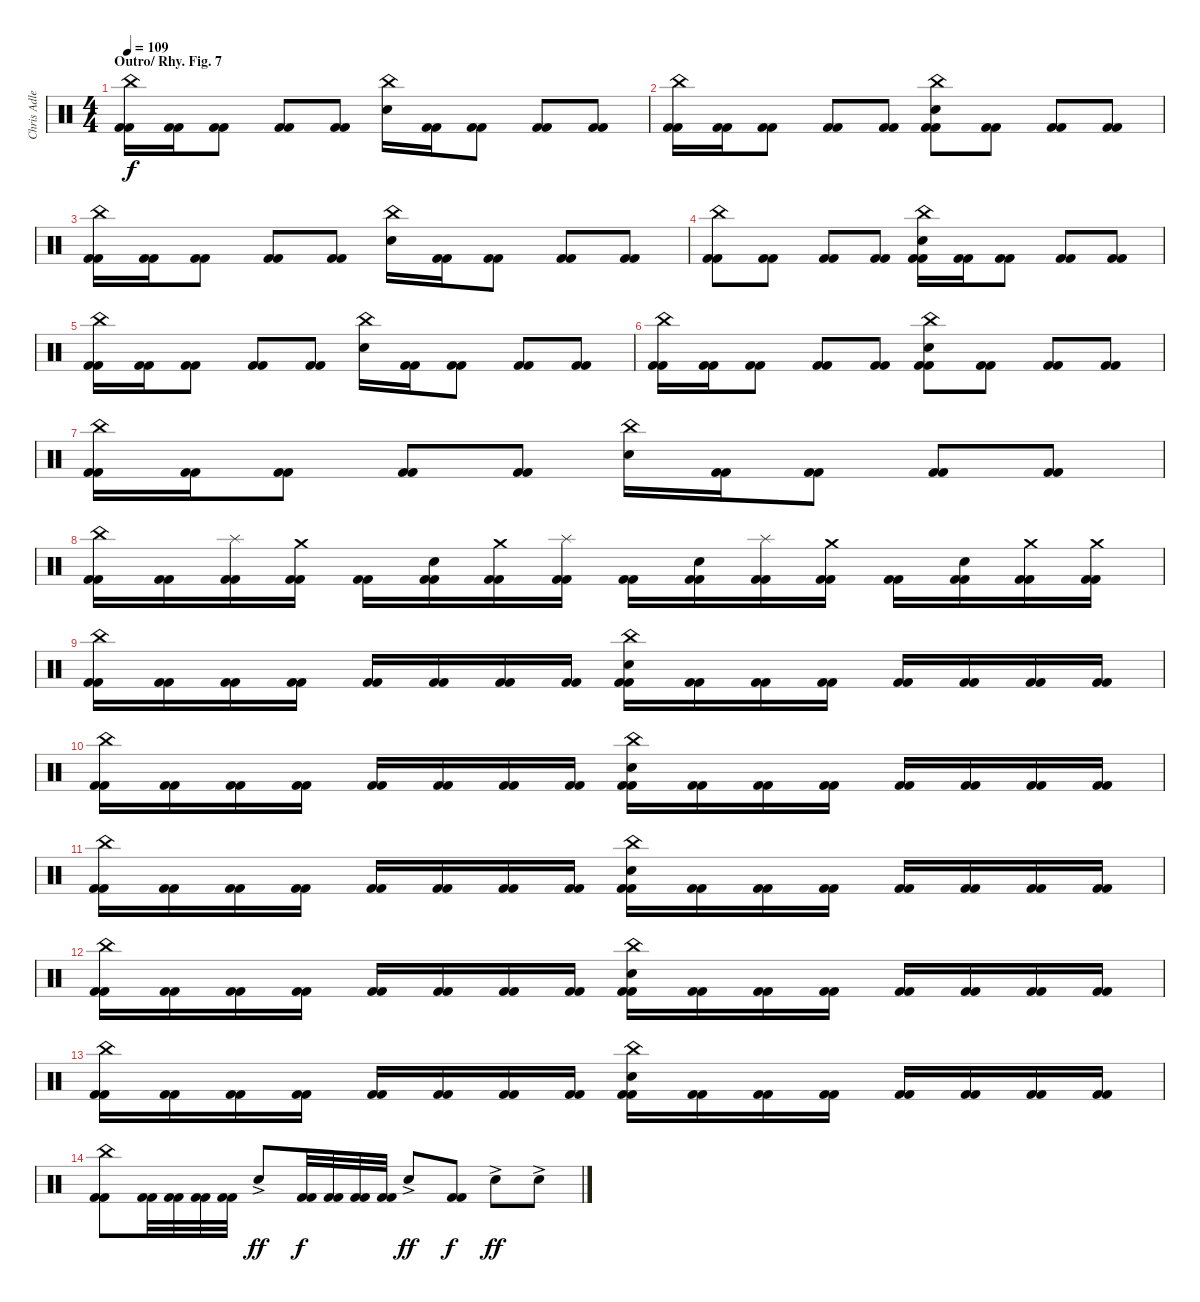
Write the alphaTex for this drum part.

\track ("Chris Adler" "Chris Adle") {instrument percussion}
\staff {score}
\articulation defaults
\ts (4 4)
\section ("" "Outro/ Rhy. Fig. 7")
\tempo 109
\clef neutral
\ks c
("China (hit)" "Kick (hit) 2" "Kick (hit) 2").16{dy f} ("Kick (hit) 2" "Kick (hit) 2").16 ("Kick (hit) 2" "Kick (hit) 2").8 ("Kick (hit) 2" "Kick (hit) 2").8 ("Kick (hit) 2" "Kick (hit) 2").8 ("China (hit)" "Snare (hit) 2").16 ("Kick (hit) 2" "Kick (hit) 2").16 ("Kick (hit) 2" "Kick (hit) 2").8 ("Kick (hit) 2" "Kick (hit) 2").8 ("Kick (hit) 2" "Kick (hit) 2").8 |
("China (hit)" "Kick (hit) 2" "Kick (hit) 2").16 ("Kick (hit) 2" "Kick (hit) 2").16 ("Kick (hit) 2" "Kick (hit) 2").8 ("Kick (hit) 2" "Kick (hit) 2").8 ("Kick (hit) 2" "Kick (hit) 2").8 ("China (hit)" "Snare (hit) 2" "Kick (hit) 2" "Kick (hit) 2").8 ("Kick (hit) 2" "Kick (hit) 2").8 ("Kick (hit) 2" "Kick (hit) 2").8 ("Kick (hit) 2" "Kick (hit) 2").8 |
("China (hit)" "Kick (hit) 2" "Kick (hit) 2").16 ("Kick (hit) 2" "Kick (hit) 2").16 ("Kick (hit) 2" "Kick (hit) 2").8 ("Kick (hit) 2" "Kick (hit) 2").8 ("Kick (hit) 2" "Kick (hit) 2").8 ("China (hit)" "Snare (hit) 2").16 ("Kick (hit) 2" "Kick (hit) 2").16 ("Kick (hit) 2" "Kick (hit) 2").8 ("Kick (hit) 2" "Kick (hit) 2").8 ("Kick (hit) 2" "Kick (hit) 2").8 |
("China (hit)" "Kick (hit) 2" "Kick (hit) 2").8 ("Kick (hit) 2" "Kick (hit) 2").8 ("Kick (hit) 2" "Kick (hit) 2").8 ("Kick (hit) 2" "Kick (hit) 2").8 ("China (hit)" "Snare (hit) 2" "Kick (hit) 2" "Kick (hit) 2").16 ("Kick (hit) 2" "Kick (hit) 2").16 ("Kick (hit) 2" "Kick (hit) 2").8 ("Kick (hit) 2" "Kick (hit) 2").8 ("Kick (hit) 2" "Kick (hit) 2").8 |
("China (hit)" "Kick (hit) 2" "Kick (hit) 2").16 ("Kick (hit) 2" "Kick (hit) 2").16 ("Kick (hit) 2" "Kick (hit) 2").8 ("Kick (hit) 2" "Kick (hit) 2").8 ("Kick (hit) 2" "Kick (hit) 2").8 ("China (hit)" "Snare (hit) 2").16 ("Kick (hit) 2" "Kick (hit) 2").16 ("Kick (hit) 2" "Kick (hit) 2").8 ("Kick (hit) 2" "Kick (hit) 2").8 ("Kick (hit) 2" "Kick (hit) 2").8 |
("China (hit)" "Kick (hit) 2" "Kick (hit) 2").16 ("Kick (hit) 2" "Kick (hit) 2").16 ("Kick (hit) 2" "Kick (hit) 2").8 ("Kick (hit) 2" "Kick (hit) 2").8 ("Kick (hit) 2" "Kick (hit) 2").8 ("China (hit)" "Snare (hit) 2" "Kick (hit) 2" "Kick (hit) 2").8 ("Kick (hit) 2" "Kick (hit) 2").8 ("Kick (hit) 2" "Kick (hit) 2").8 ("Kick (hit) 2" "Kick (hit) 2").8 |
("China (hit)" "Kick (hit) 2" "Kick (hit) 2").16 ("Kick (hit) 2" "Kick (hit) 2").16 ("Kick (hit) 2" "Kick (hit) 2").8 ("Kick (hit) 2" "Kick (hit) 2").8 ("Kick (hit) 2" "Kick (hit) 2").8 ("China (hit)" "Snare (hit) 2").16 ("Kick (hit) 2" "Kick (hit) 2").16 ("Kick (hit) 2" "Kick (hit) 2").8 ("Kick (hit) 2" "Kick (hit) 2").8 ("Kick (hit) 2" "Kick (hit) 2").8 |
("China (hit)" "Kick (hit) 2" "Kick (hit) 2").16 ("Kick (hit) 2" "Kick (hit) 2").16 ("Splash (hit)" "Kick (hit) 2" "Kick (hit) 2").16 ("Crash medium (hit)" "Kick (hit) 2" "Kick (hit) 2").16 ("Kick (hit) 2" "Kick (hit) 2").16 ("Snare (hit) 2" "Kick (hit) 2" "Kick (hit) 2").16 ("Crash medium (hit)" "Kick (hit) 2" "Kick (hit) 2").16 ("Splash (hit)" "Kick (hit) 2" "Kick (hit) 2").16 ("Kick (hit) 2" "Kick (hit) 2").16 ("Snare (hit) 2" "Kick (hit) 2" "Kick (hit) 2").16 ("Splash (hit)" "Kick (hit) 2" "Kick (hit) 2").16 ("Crash medium (hit)" "Kick (hit) 2" "Kick (hit) 2").16 ("Kick (hit) 2" "Kick (hit) 2").16 ("Snare (hit) 2" "Kick (hit) 2" "Kick (hit) 2").16 ("Crash medium (hit)" "Kick (hit) 2" "Kick (hit) 2").16 ("Crash medium (hit)" "Kick (hit) 2" "Kick (hit) 2").16 |
("China (hit)" "Kick (hit) 2" "Kick (hit) 2").16 ("Kick (hit) 2" "Kick (hit) 2").16 ("Kick (hit) 2" "Kick (hit) 2").16 ("Kick (hit) 2" "Kick (hit) 2").16 ("Kick (hit) 2" "Kick (hit) 2").16 ("Kick (hit) 2" "Kick (hit) 2").16 ("Kick (hit) 2" "Kick (hit) 2").16 ("Kick (hit) 2" "Kick (hit) 2").16 ("China (hit)" "Snare (hit) 2" "Kick (hit) 2" "Kick (hit) 2").16 ("Kick (hit) 2" "Kick (hit) 2").16 ("Kick (hit) 2" "Kick (hit) 2").16 ("Kick (hit) 2" "Kick (hit) 2").16 ("Kick (hit) 2" "Kick (hit) 2").16 ("Kick (hit) 2" "Kick (hit) 2").16 ("Kick (hit) 2" "Kick (hit) 2").16 ("Kick (hit) 2" "Kick (hit) 2").16 |
("China (hit)" "Kick (hit) 2" "Kick (hit) 2").16 ("Kick (hit) 2" "Kick (hit) 2").16 ("Kick (hit) 2" "Kick (hit) 2").16 ("Kick (hit) 2" "Kick (hit) 2").16 ("Kick (hit) 2" "Kick (hit) 2").16 ("Kick (hit) 2" "Kick (hit) 2").16 ("Kick (hit) 2" "Kick (hit) 2").16 ("Kick (hit) 2" "Kick (hit) 2").16 ("China (hit)" "Snare (hit) 2" "Kick (hit) 2" "Kick (hit) 2").16 ("Kick (hit) 2" "Kick (hit) 2").16 ("Kick (hit) 2" "Kick (hit) 2").16 ("Kick (hit) 2" "Kick (hit) 2").16 ("Kick (hit) 2" "Kick (hit) 2").16 ("Kick (hit) 2" "Kick (hit) 2").16 ("Kick (hit) 2" "Kick (hit) 2").16 ("Kick (hit) 2" "Kick (hit) 2").16 |
("China (hit)" "Kick (hit) 2" "Kick (hit) 2").16 ("Kick (hit) 2" "Kick (hit) 2").16 ("Kick (hit) 2" "Kick (hit) 2").16 ("Kick (hit) 2" "Kick (hit) 2").16 ("Kick (hit) 2" "Kick (hit) 2").16 ("Kick (hit) 2" "Kick (hit) 2").16 ("Kick (hit) 2" "Kick (hit) 2").16 ("Kick (hit) 2" "Kick (hit) 2").16 ("China (hit)" "Snare (hit) 2" "Kick (hit) 2" "Kick (hit) 2").16 ("Kick (hit) 2" "Kick (hit) 2").16 ("Kick (hit) 2" "Kick (hit) 2").16 ("Kick (hit) 2" "Kick (hit) 2").16 ("Kick (hit) 2" "Kick (hit) 2").16 ("Kick (hit) 2" "Kick (hit) 2").16 ("Kick (hit) 2" "Kick (hit) 2").16 ("Kick (hit) 2" "Kick (hit) 2").16 |
("China (hit)" "Kick (hit) 2" "Kick (hit) 2").16 ("Kick (hit) 2" "Kick (hit) 2").16 ("Kick (hit) 2" "Kick (hit) 2").16 ("Kick (hit) 2" "Kick (hit) 2").16 ("Kick (hit) 2" "Kick (hit) 2").16 ("Kick (hit) 2" "Kick (hit) 2").16 ("Kick (hit) 2" "Kick (hit) 2").16 ("Kick (hit) 2" "Kick (hit) 2").16 ("China (hit)" "Snare (hit) 2" "Kick (hit) 2" "Kick (hit) 2").16 ("Kick (hit) 2" "Kick (hit) 2").16 ("Kick (hit) 2" "Kick (hit) 2").16 ("Kick (hit) 2" "Kick (hit) 2").16 ("Kick (hit) 2" "Kick (hit) 2").16 ("Kick (hit) 2" "Kick (hit) 2").16 ("Kick (hit) 2" "Kick (hit) 2").16 ("Kick (hit) 2" "Kick (hit) 2").16 |
("China (hit)" "Kick (hit) 2" "Kick (hit) 2").16 ("Kick (hit) 2" "Kick (hit) 2").16 ("Kick (hit) 2" "Kick (hit) 2").16 ("Kick (hit) 2" "Kick (hit) 2").16 ("Kick (hit) 2" "Kick (hit) 2").16 ("Kick (hit) 2" "Kick (hit) 2").16 ("Kick (hit) 2" "Kick (hit) 2").16 ("Kick (hit) 2" "Kick (hit) 2").16 ("China (hit)" "Snare (hit) 2" "Kick (hit) 2" "Kick (hit) 2").16 ("Kick (hit) 2" "Kick (hit) 2").16 ("Kick (hit) 2" "Kick (hit) 2").16 ("Kick (hit) 2" "Kick (hit) 2").16 ("Kick (hit) 2" "Kick (hit) 2").16 ("Kick (hit) 2" "Kick (hit) 2").16 ("Kick (hit) 2" "Kick (hit) 2").16 ("Kick (hit) 2" "Kick (hit) 2").16 |
("China (hit)" "Kick (hit) 2" "Kick (hit) 2").8 ("Kick (hit) 2" "Kick (hit) 2").32 ("Kick (hit) 2" "Kick (hit) 2").32 ("Kick (hit) 2" "Kick (hit) 2").32 ("Kick (hit) 2" "Kick (hit) 2").32 "Snare (hit) 2"{ac}.8{dy ff} ("Kick (hit) 2" "Kick (hit) 2").32{dy f} ("Kick (hit) 2" "Kick (hit) 2").32 ("Kick (hit) 2" "Kick (hit) 2").32 ("Kick (hit) 2" "Kick (hit) 2").32 "Snare (hit) 2"{ac}.8{dy ff} ("Kick (hit) 2" "Kick (hit) 2").8{dy f} "Snare (hit) 2"{ac}.8{dy ff} "Snare (hit) 2"{ac}.8
